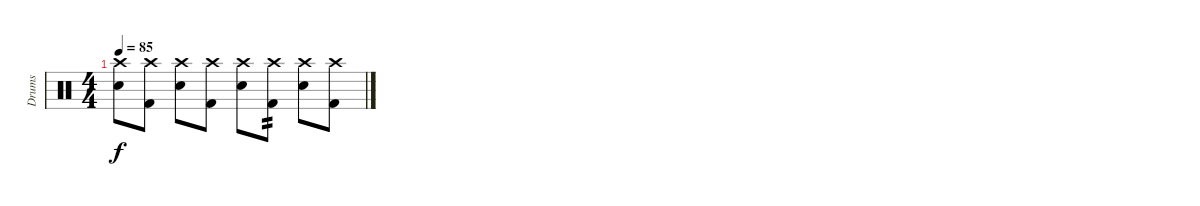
\track ("Drums" "Drums") {instrument percussion}
\staff {score}
\articulation defaults
\ts (4 4)
\tempo 85
\clef neutral
\ks c
("Crash high (hit)" "Electric Snare (hit)").8{dy f} ("Crash high (hit)" "Kick (hit) 2").8 ("Crash high (hit)" "Electric Snare (hit)").8 ("Crash high (hit)" "Kick (hit) 2").8 ("Crash high (hit)" "Electric Snare (hit)").8 ("Crash high (hit)" "Kick (hit) 2").8{tp 2} ("Crash high (hit)" "Electric Snare (hit)").8 ("Crash high (hit)" "Kick (hit) 2").8
